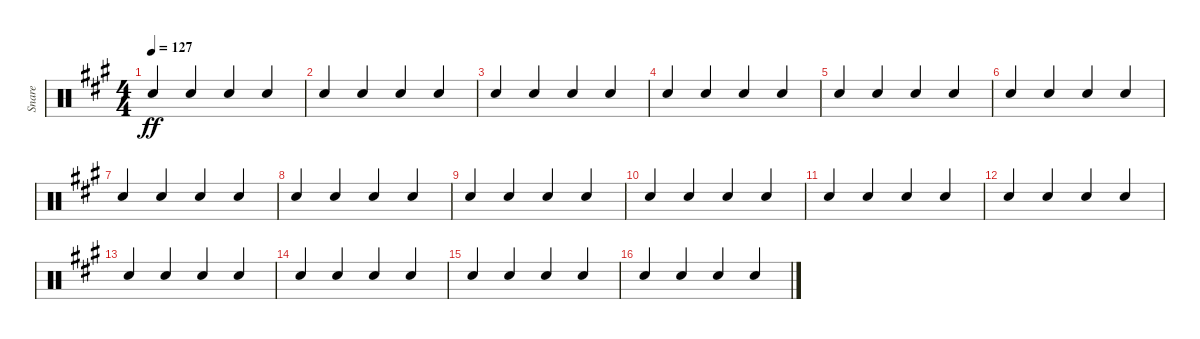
\track ("Snare" "Snare") {instrument percussion}
\staff {score}
\articulation defaults
\ts (4 4)
\tempo 127
\clef neutral
\ks a "Electric Snare (hit)".4{dy ff beam Up} "Electric Snare (hit)".4{beam Up} "Electric Snare (hit)".4{beam Up} "Electric Snare (hit)".4{beam Up}
|
"Electric Snare (hit)".4{beam Up} "Electric Snare (hit)".4{beam Up} "Electric Snare (hit)".4{beam Up} "Electric Snare (hit)".4{beam Up} |
"Electric Snare (hit)".4{beam Up} "Electric Snare (hit)".4{beam Up} "Electric Snare (hit)".4{beam Up} "Electric Snare (hit)".4{beam Up} |
"Electric Snare (hit)".4{beam Up} "Electric Snare (hit)".4{beam Up} "Electric Snare (hit)".4{beam Up} "Electric Snare (hit)".4{beam Up} |
"Electric Snare (hit)".4{beam Up} "Electric Snare (hit)".4{beam Up} "Electric Snare (hit)".4{beam Up} "Electric Snare (hit)".4{beam Up} |
"Electric Snare (hit)".4{beam Up} "Electric Snare (hit)".4{beam Up} "Electric Snare (hit)".4{beam Up} "Electric Snare (hit)".4{beam Up} |
"Electric Snare (hit)".4{beam Up} "Electric Snare (hit)".4{beam Up} "Electric Snare (hit)".4{beam Up} "Electric Snare (hit)".4{beam Up} |
"Electric Snare (hit)".4{beam Up} "Electric Snare (hit)".4{beam Up} "Electric Snare (hit)".4{beam Up} "Electric Snare (hit)".4{beam Up} |
"Electric Snare (hit)".4{beam Up} "Electric Snare (hit)".4{beam Up} "Electric Snare (hit)".4{beam Up} "Electric Snare (hit)".4{beam Up} |
"Electric Snare (hit)".4{beam Up} "Electric Snare (hit)".4{beam Up} "Electric Snare (hit)".4{beam Up} "Electric Snare (hit)".4{beam Up} |
"Electric Snare (hit)".4{beam Up} "Electric Snare (hit)".4{beam Up} "Electric Snare (hit)".4{beam Up} "Electric Snare (hit)".4{beam Up} |
"Electric Snare (hit)".4{beam Up} "Electric Snare (hit)".4{beam Up} "Electric Snare (hit)".4{beam Up} "Electric Snare (hit)".4{beam Up} |
"Electric Snare (hit)".4{beam Up} "Electric Snare (hit)".4{beam Up} "Electric Snare (hit)".4{beam Up} "Electric Snare (hit)".4{beam Up} |
"Electric Snare (hit)".4{beam Up} "Electric Snare (hit)".4{beam Up} "Electric Snare (hit)".4{beam Up} "Electric Snare (hit)".4{beam Up} |
"Electric Snare (hit)".4{beam Up} "Electric Snare (hit)".4{beam Up} "Electric Snare (hit)".4{beam Up} "Electric Snare (hit)".4{beam Up} |
"Electric Snare (hit)".4{beam Up} "Electric Snare (hit)".4{beam Up} "Electric Snare (hit)".4{beam Up} "Electric Snare (hit)".4{beam Up}
